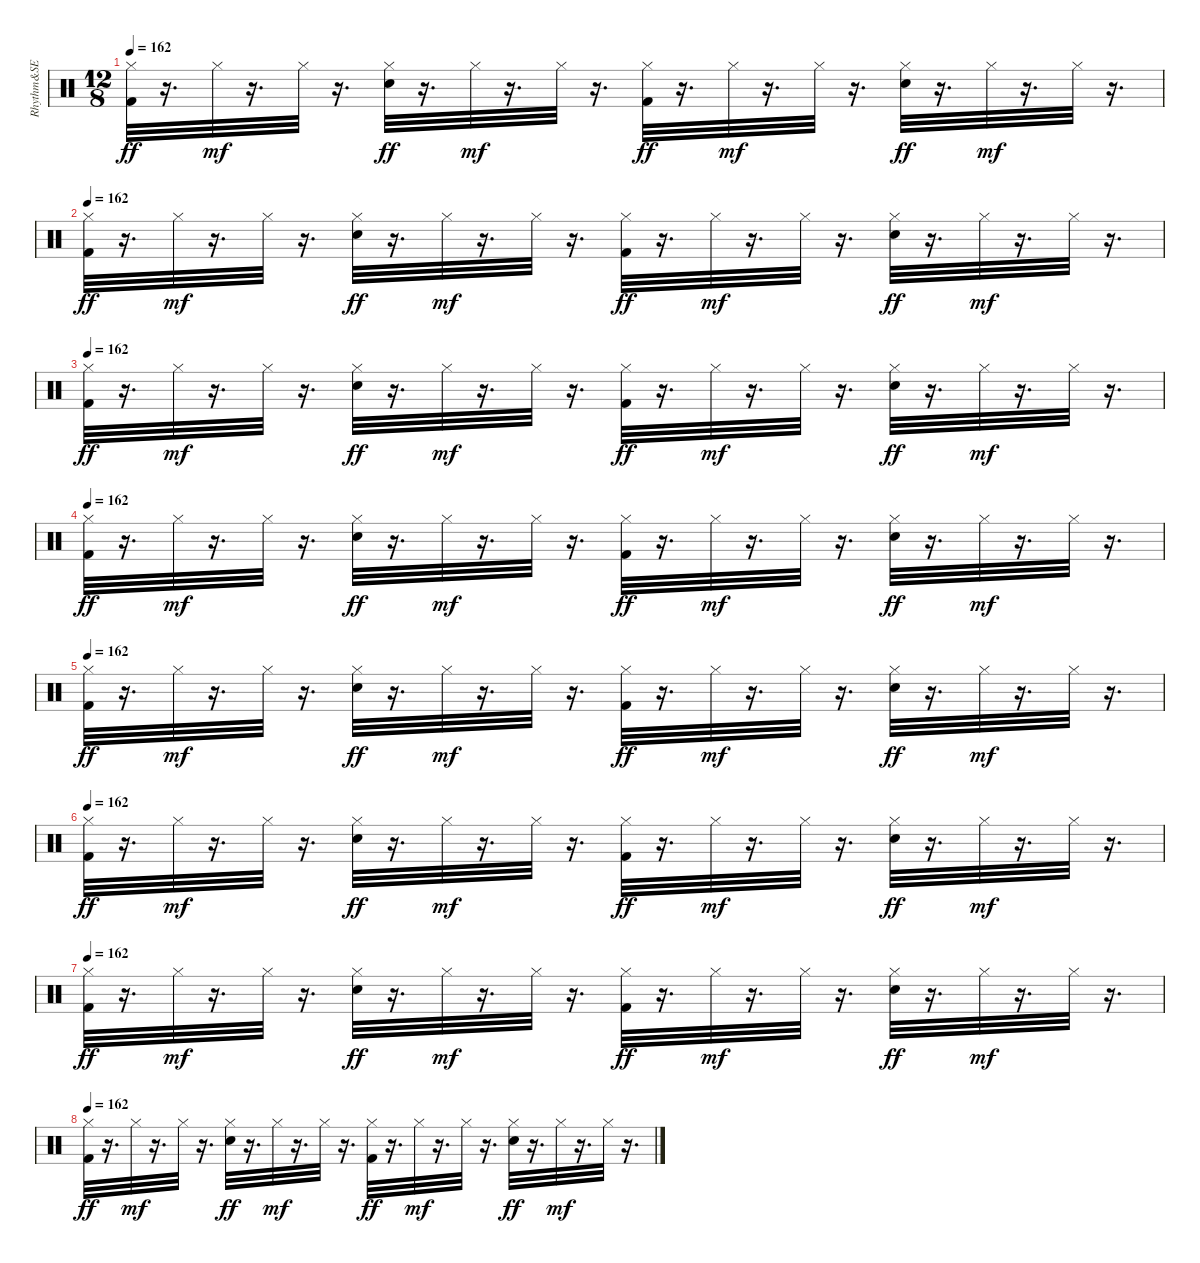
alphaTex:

\track ("Rhythm&SE" "Rhythm&SE") {instrument percussion}
\staff {score}
\articulation defaults
\ts (12 8)
\tempo 162
\clef neutral
\ks c
("Kick (hit) 2" "Hi-Hat (closed)").32{dy ff balance 8} r.16{d} "Hi-Hat (closed)".32{dy mf volume 5} r.16{d} "Hi-Hat (closed)".32 r.16{d} ("Snare (hit) 2" "Hi-Hat (closed)").32{dy ff volume 5} r.16{d} "Hi-Hat (closed)".32{dy mf} r.16{d} "Hi-Hat (closed)".32 r.16{d} ("Kick (hit) 2" "Hi-Hat (closed)").32{dy ff volume 6} r.16{d} "Hi-Hat (closed)".32{dy mf} r.16{d} "Hi-Hat (closed)".32{volume 6} r.16{d} ("Snare (hit) 2" "Hi-Hat (closed)").32{dy ff} r.16{d} "Hi-Hat (closed)".32{dy mf volume 6} r.16{d} "Hi-Hat (closed)".32 r.16{d} |
\tempo 162
("Kick (hit) 2" "Hi-Hat (closed)").32{dy ff balance 8} r.16{d} "Hi-Hat (closed)".32{dy mf volume 6} r.16{d} "Hi-Hat (closed)".32 r.16{d} ("Snare (hit) 2" "Hi-Hat (closed)").32{dy ff volume 6} r.16{d} "Hi-Hat (closed)".32{dy mf} r.16{d} "Hi-Hat (closed)".32{volume 6} r.16{d} ("Kick (hit) 2" "Hi-Hat (closed)").32{dy ff} r.16{d} "Hi-Hat (closed)".32{dy mf} r.16{d} "Hi-Hat (closed)".32{volume 6} r.16{d} ("Snare (hit) 2" "Hi-Hat (closed)").32{dy ff} r.16{d} "Hi-Hat (closed)".32{dy mf volume 6} r.16{d} "Hi-Hat (closed)".32 r.16{d} |
\tempo 162
("Kick (hit) 2" "Hi-Hat (closed)").32{dy ff volume 6 balance 8} r.16{d} "Hi-Hat (closed)".32{dy mf} r.16{d} "Hi-Hat (closed)".32{volume 7} r.16{d} ("Snare (hit) 2" "Hi-Hat (closed)").32{dy ff} r.16{d} "Hi-Hat (closed)".32{dy mf} r.16{d} "Hi-Hat (closed)".32{volume 7} r.16{d} ("Kick (hit) 2" "Hi-Hat (closed)").32{dy ff} r.16{d} "Hi-Hat (closed)".32{dy mf volume 7} r.16{d} "Hi-Hat (closed)".32 r.16{d} ("Snare (hit) 2" "Hi-Hat (closed)").32{dy ff volume 7} r.16{d} "Hi-Hat (closed)".32{dy mf} r.16{d} "Hi-Hat (closed)".32 r.16{d} |
\tempo 162
("Kick (hit) 2" "Hi-Hat (closed)").32{dy ff volume 7 balance 8} r.16{d} "Hi-Hat (closed)".32{dy mf} r.16{d} "Hi-Hat (closed)".32{volume 7} r.16{d} ("Snare (hit) 2" "Hi-Hat (closed)").32{dy ff} r.16{d} "Hi-Hat (closed)".32{dy mf volume 7} r.16{d} "Hi-Hat (closed)".32 r.16{d} ("Kick (hit) 2" "Hi-Hat (closed)").32{dy ff volume 8} r.16{d} "Hi-Hat (closed)".32{dy mf} r.16{d} "Hi-Hat (closed)".32 r.16{d} ("Snare (hit) 2" "Hi-Hat (closed)").32{dy ff volume 8} r.16{d} "Hi-Hat (closed)".32{dy mf} r.16{d} "Hi-Hat (closed)".32{volume 8} r.16{d} |
\tempo 162
("Kick (hit) 2" "Hi-Hat (closed)").32{dy ff balance 8} r.16{d} "Hi-Hat (closed)".32{dy mf volume 8} r.16{d} "Hi-Hat (closed)".32 r.16{d} ("Snare (hit) 2" "Hi-Hat (closed)").32{dy ff} r.16{d} "Hi-Hat (closed)".32{dy mf volume 8} r.16{d} "Hi-Hat (closed)".32 r.16{d} ("Kick (hit) 2" "Hi-Hat (closed)").32{dy ff volume 8} r.16{d} "Hi-Hat (closed)".32{dy mf} r.16{d} "Hi-Hat (closed)".32{volume 8} r.16{d} ("Snare (hit) 2" "Hi-Hat (closed)").32{dy ff} r.16{d} "Hi-Hat (closed)".32{dy mf volume 8} r.16{d} "Hi-Hat (closed)".32 r.16{d} |
\tempo 162
("Kick (hit) 2" "Hi-Hat (closed)").32{dy ff balance 8} r.16{d} "Hi-Hat (closed)".32{dy mf volume 8} r.16{d} "Hi-Hat (closed)".32 r.16{d} ("Snare (hit) 2" "Hi-Hat (closed)").32{dy ff volume 9} r.16{d} "Hi-Hat (closed)".32{dy mf} r.16{d} "Hi-Hat (closed)".32{volume 9} r.16{d} ("Kick (hit) 2" "Hi-Hat (closed)").32{dy ff} r.16{d} "Hi-Hat (closed)".32{dy mf} r.16{d} "Hi-Hat (closed)".32{volume 9} r.16{d} ("Snare (hit) 2" "Hi-Hat (closed)").32{dy ff} r.16{d} "Hi-Hat (closed)".32{dy mf volume 9} r.16{d} "Hi-Hat (closed)".32 r.16{d} |
\tempo 162
("Kick (hit) 2" "Hi-Hat (closed)").32{dy ff balance 8} r.16{d} "Hi-Hat (closed)".32{dy mf} r.16{d} "Hi-Hat (closed)".32 r.16{d} ("Snare (hit) 2" "Hi-Hat (closed)").32{dy ff volume 9} r.16{d} "Hi-Hat (closed)".32{dy mf} r.16{d} "Hi-Hat (closed)".32{volume 9} r.16{d} ("Kick (hit) 2" "Hi-Hat (closed)").32{dy ff} r.16{d} "Hi-Hat (closed)".32{dy mf volume 10} r.16{d} "Hi-Hat (closed)".32 r.16{d} ("Snare (hit) 2" "Hi-Hat (closed)").32{dy ff volume 10} r.16{d} "Hi-Hat (closed)".32{dy mf} r.16{d} "Hi-Hat (closed)".32 r.16{d} |
\tempo 162
("Kick (hit) 2" "Hi-Hat (closed)").32{dy ff volume 10 balance 8} r.16{d} "Hi-Hat (closed)".32{dy mf} r.16{d} "Hi-Hat (closed)".32{volume 10} r.16{d} ("Snare (hit) 2" "Hi-Hat (closed)").32{dy ff} r.16{d} "Hi-Hat (closed)".32{dy mf volume 10} r.16{d} "Hi-Hat (closed)".32 r.16{d} ("Kick (hit) 2" "Hi-Hat (closed)").32{dy ff} r.16{d} "Hi-Hat (closed)".32{dy mf volume 10} r.16{d} "Hi-Hat (closed)".32 r.16{d} ("Snare (hit) 2" "Hi-Hat (closed)").32{dy ff volume 10} r.16{d} "Hi-Hat (closed)".32{dy mf} r.16{d} "Hi-Hat (closed)".32{volume 10} r.16{d}
